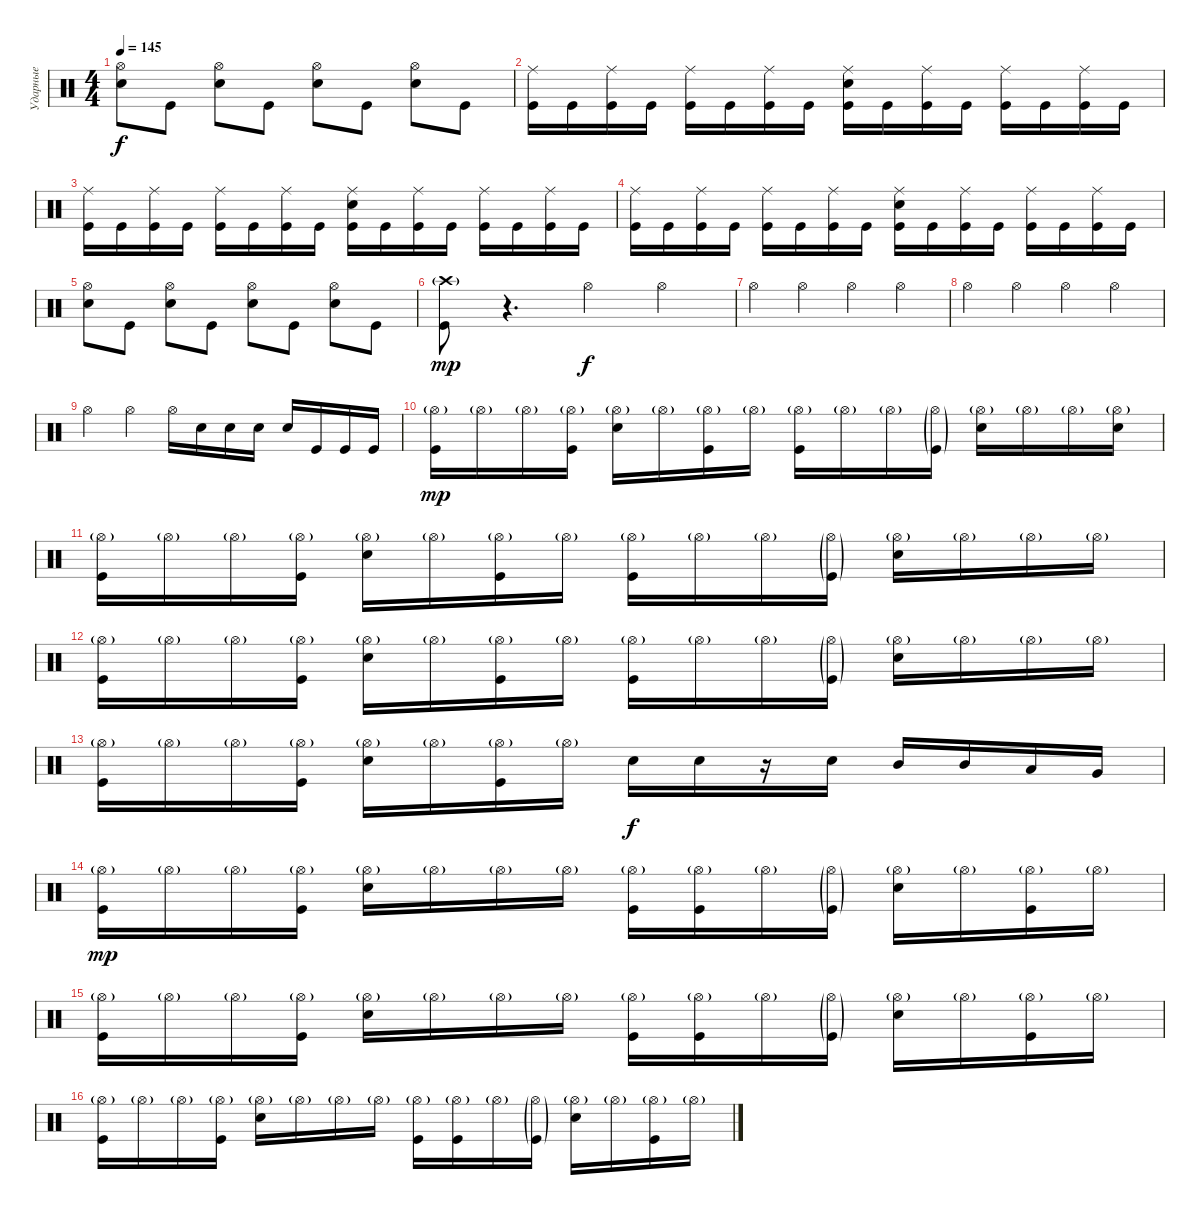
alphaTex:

\track ("Ударные" "Ударные") {instrument percussion}
\staff {score}
\articulation defaults
\ts (4 4)
\tempo 145
\clef neutral
\ks c
("Hi-Hat (open)" "Snare (hit) 2").8{dy f} "Kick (hit)".8 ("Hi-Hat (open)" "Snare (hit) 2").8 "Kick (hit)".8 ("Hi-Hat (open)" "Snare (hit) 2").8 "Kick (hit)".8 ("Hi-Hat (open)" "Snare (hit) 2").8 "Kick (hit)".8 |
("Ride (middle)" "Kick (hit)").16 "Kick (hit)".16 ("Ride (middle)" "Kick (hit)").16 "Kick (hit)".16 ("Ride (middle)" "Kick (hit)").16 "Kick (hit)".16 ("Ride (middle)" "Kick (hit)").16 "Kick (hit)".16 ("Ride (middle)" "Snare (hit) 2" "Kick (hit)").16 "Kick (hit)".16 ("Ride (middle)" "Kick (hit)").16 "Kick (hit)".16 ("Ride (middle)" "Kick (hit)").16 "Kick (hit)".16 ("Ride (middle)" "Kick (hit)").16 "Kick (hit)".16 |
("Ride (middle)" "Kick (hit)").16 "Kick (hit)".16 ("Ride (middle)" "Kick (hit)").16 "Kick (hit)".16 ("Ride (middle)" "Kick (hit)").16 "Kick (hit)".16 ("Ride (middle)" "Kick (hit)").16 "Kick (hit)".16 ("Ride (middle)" "Snare (hit) 2" "Kick (hit)").16 "Kick (hit)".16 ("Ride (middle)" "Kick (hit)").16 "Kick (hit)".16 ("Ride (middle)" "Kick (hit)").16 "Kick (hit)".16 ("Ride (middle)" "Kick (hit)").16 "Kick (hit)".16 |
("Ride (middle)" "Kick (hit)").16 "Kick (hit)".16 ("Ride (middle)" "Kick (hit)").16 "Kick (hit)".16 ("Ride (middle)" "Kick (hit)").16 "Kick (hit)".16 ("Ride (middle)" "Kick (hit)").16 "Kick (hit)".16 ("Ride (middle)" "Snare (hit) 2" "Kick (hit)").16 "Kick (hit)".16 ("Ride (middle)" "Kick (hit)").16 "Kick (hit)".16 ("Ride (middle)" "Kick (hit)").16 "Kick (hit)".16 ("Ride (middle)" "Kick (hit)").16 "Kick (hit)".16 |
("Hi-Hat (open)" "Snare (hit) 2").8 "Kick (hit)".8 ("Hi-Hat (open)" "Snare (hit) 2").8 "Kick (hit)".8 ("Hi-Hat (open)" "Snare (hit) 2").8 "Kick (hit)".8 ("Hi-Hat (open)" "Snare (hit) 2").8 "Kick (hit)".8 |
("Crash high (hit)"{g} "Kick (hit)").8{dy mp} r.4{d} "Hi-Hat (open)".4{dy f} "Hi-Hat (open)".4 |
"Hi-Hat (open)".4 "Hi-Hat (open)".4 "Hi-Hat (open)".4 "Hi-Hat (open)".4 |
"Hi-Hat (open)".4 "Hi-Hat (open)".4 "Hi-Hat (open)".4 "Hi-Hat (open)".4 |
"Hi-Hat (open)".4 "Hi-Hat (open)".4 "Hi-Hat (open)".16 "Snare (hit) 2".16 "Snare (hit) 2".16 "Snare (hit) 2".16 "Snare (hit) 2".16 "Kick (hit)".16 "Kick (hit)".16 "Kick (hit)".16 |
("Hi-Hat (open)"{g} "Kick (hit)").16{dy mp} "Hi-Hat (open)"{g}.16 "Hi-Hat (open)"{g}.16 ("Hi-Hat (open)"{g} "Kick (hit)").16 ("Hi-Hat (open)"{g} "Snare (hit) 2").16 "Hi-Hat (open)"{g}.16 ("Hi-Hat (open)"{g} "Kick (hit)").16 "Hi-Hat (open)"{g}.16 ("Hi-Hat (open)"{g} "Kick (hit)").16 "Hi-Hat (open)"{g}.16 "Hi-Hat (open)"{g}.16 ("Hi-Hat (open)"{g} "Kick (hit)"{g}).16 ("Hi-Hat (open)"{g} "Snare (hit) 2").16 "Hi-Hat (open)"{g}.16 "Hi-Hat (open)"{g}.16 ("Hi-Hat (open)"{g} "Snare (hit) 2").16 |
("Hi-Hat (open)"{g} "Kick (hit)").16 "Hi-Hat (open)"{g}.16 "Hi-Hat (open)"{g}.16 ("Hi-Hat (open)"{g} "Kick (hit)").16 ("Hi-Hat (open)"{g} "Snare (hit) 2").16 "Hi-Hat (open)"{g}.16 ("Hi-Hat (open)"{g} "Kick (hit)").16 "Hi-Hat (open)"{g}.16 ("Hi-Hat (open)"{g} "Kick (hit)").16 "Hi-Hat (open)"{g}.16 "Hi-Hat (open)"{g}.16 ("Hi-Hat (open)"{g} "Kick (hit)"{g}).16 ("Hi-Hat (open)"{g} "Snare (hit) 2").16 "Hi-Hat (open)"{g}.16 "Hi-Hat (open)"{g}.16 "Hi-Hat (open)"{g}.16 |
("Hi-Hat (open)"{g} "Kick (hit)").16 "Hi-Hat (open)"{g}.16 "Hi-Hat (open)"{g}.16 ("Hi-Hat (open)"{g} "Kick (hit)").16 ("Hi-Hat (open)"{g} "Snare (hit) 2").16 "Hi-Hat (open)"{g}.16 ("Hi-Hat (open)"{g} "Kick (hit)").16 "Hi-Hat (open)"{g}.16 ("Hi-Hat (open)"{g} "Kick (hit)").16 "Hi-Hat (open)"{g}.16 "Hi-Hat (open)"{g}.16 ("Hi-Hat (open)"{g} "Kick (hit)"{g}).16 ("Hi-Hat (open)"{g} "Snare (hit) 2").16 "Hi-Hat (open)"{g}.16 "Hi-Hat (open)"{g}.16 "Hi-Hat (open)"{g}.16 |
("Hi-Hat (open)"{g} "Kick (hit)").16 "Hi-Hat (open)"{g}.16 "Hi-Hat (open)"{g}.16 ("Hi-Hat (open)"{g} "Kick (hit)").16 ("Hi-Hat (open)"{g} "Snare (hit) 2").16 "Hi-Hat (open)"{g}.16 ("Hi-Hat (open)"{g} "Kick (hit)").16 "Hi-Hat (open)"{g}.16 "Snare (hit) 2".16{dy f} "Snare (hit) 2".16 r.16 "Snare (hit) 2".16 "Mid Tom (hit)".16 "Mid Tom (hit)".16 "Low Tom (hit)".16 "Very Low Tom (hit)".16 |
("Hi-Hat (open)"{g} "Kick (hit)").16{dy mp} "Hi-Hat (open)"{g}.16 "Hi-Hat (open)"{g}.16 ("Hi-Hat (open)"{g} "Kick (hit)").16 ("Hi-Hat (open)"{g} "Snare (hit) 2").16 "Hi-Hat (open)"{g}.16 "Hi-Hat (open)"{g}.16 "Hi-Hat (open)"{g}.16 ("Hi-Hat (open)"{g} "Kick (hit)").16 ("Hi-Hat (open)"{g} "Kick (hit)").16 "Hi-Hat (open)"{g}.16 ("Hi-Hat (open)"{g} "Kick (hit)"{g}).16 ("Hi-Hat (open)"{g} "Snare (hit) 2").16 "Hi-Hat (open)"{g}.16 ("Hi-Hat (open)"{g} "Kick (hit)").16 "Hi-Hat (open)"{g}.16 |
("Hi-Hat (open)"{g} "Kick (hit)").16 "Hi-Hat (open)"{g}.16 "Hi-Hat (open)"{g}.16 ("Hi-Hat (open)"{g} "Kick (hit)").16 ("Hi-Hat (open)"{g} "Snare (hit) 2").16 "Hi-Hat (open)"{g}.16 "Hi-Hat (open)"{g}.16 "Hi-Hat (open)"{g}.16 ("Hi-Hat (open)"{g} "Kick (hit)").16 ("Hi-Hat (open)"{g} "Kick (hit)").16 "Hi-Hat (open)"{g}.16 ("Hi-Hat (open)"{g} "Kick (hit)"{g}).16 ("Hi-Hat (open)"{g} "Snare (hit) 2").16 "Hi-Hat (open)"{g}.16 ("Hi-Hat (open)"{g} "Kick (hit)").16 "Hi-Hat (open)"{g}.16 |
("Hi-Hat (open)"{g} "Kick (hit)").16 "Hi-Hat (open)"{g}.16 "Hi-Hat (open)"{g}.16 ("Hi-Hat (open)"{g} "Kick (hit)").16 ("Hi-Hat (open)"{g} "Snare (hit) 2").16 "Hi-Hat (open)"{g}.16 "Hi-Hat (open)"{g}.16 "Hi-Hat (open)"{g}.16 ("Hi-Hat (open)"{g} "Kick (hit)").16 ("Hi-Hat (open)"{g} "Kick (hit)").16 "Hi-Hat (open)"{g}.16 ("Hi-Hat (open)"{g} "Kick (hit)"{g}).16 ("Hi-Hat (open)"{g} "Snare (hit) 2").16 "Hi-Hat (open)"{g}.16 ("Hi-Hat (open)"{g} "Kick (hit)").16 "Hi-Hat (open)"{g}.16
